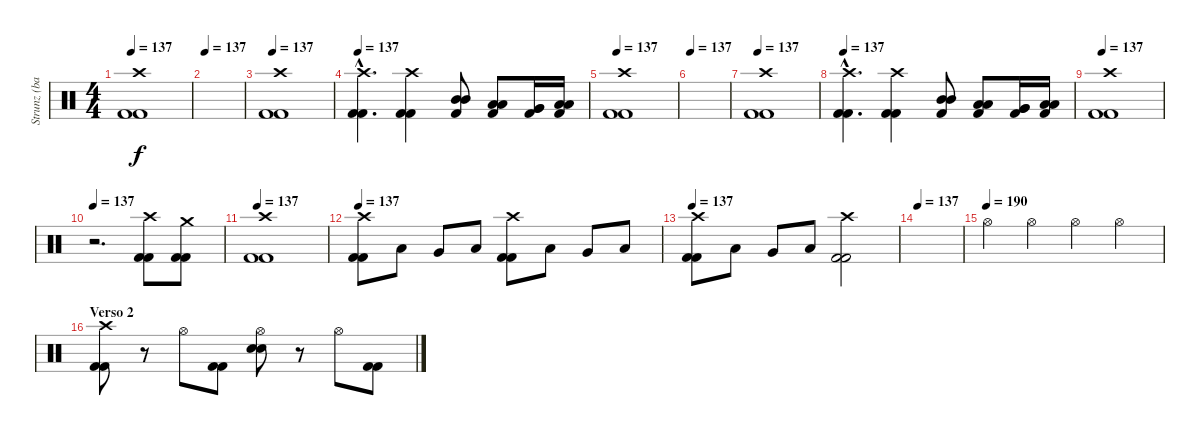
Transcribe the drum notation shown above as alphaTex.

\track ("Strunz (bateria)" "Strunz (ba") {instrument percussion}
\staff {score}
\articulation defaults
\ts (4 4)
\tempo 137
\clef neutral
\ks c
("Crash high (hit)" "Kick (hit) 2" "Kick (hit) 2").1{dy f} |
\tempo 137
|
\tempo 137
("Crash high (hit)" "Kick (hit) 2" "Kick (hit) 2").1 |
\tempo 137
("Crash high (hit)"{hac} "Kick (hit) 2"{hac} "Kick (hit) 2"{hac}).4{d} ("Crash high (hit)" "Kick (hit) 2" "Kick (hit) 2").4 ("Mid Tom (hit)" "Mid Tom (hit)" "Kick (hit) 2").8 ("Low Tom (hit)" "Low Tom (hit)" "Kick (hit) 2").8 ("Very Low Tom (hit)" "Very Low Tom (hit)" "Kick (hit) 2").16 ("Low Floor Tom (hit)" "Low Floor Tom (hit)" "Kick (hit) 2").16 |
\tempo 137
("Crash high (hit)" "Kick (hit) 2" "Kick (hit) 2").1 |
\tempo 137
|
\tempo 137
("Crash high (hit)" "Kick (hit) 2" "Kick (hit) 2").1 |
\tempo 137
("Crash high (hit)"{hac} "Kick (hit) 2"{hac} "Kick (hit) 2"{hac}).4{d} ("Crash high (hit)" "Kick (hit) 2" "Kick (hit) 2").4 ("Mid Tom (hit)" "Mid Tom (hit)" "Kick (hit) 2").8 ("Low Tom (hit)" "Low Tom (hit)" "Kick (hit) 2").8 ("Very Low Tom (hit)" "Very Low Tom (hit)" "Kick (hit) 2").16 ("Low Floor Tom (hit)" "Low Floor Tom (hit)" "Kick (hit) 2").16 |
\tempo 137
("Crash high (hit)" "Kick (hit) 2" "Kick (hit) 2").1 |
\tempo 137
r.2{d} ("Crash high (hit)" "Kick (hit) 2" "Kick (hit) 2").8 ("Crash medium (hit)" "Kick (hit) 2" "Kick (hit) 2").8 |
\tempo 137
("Crash high (hit)" "Kick (hit) 2" "Kick (hit) 2").1 |
\tempo 137
("Crash high (hit)" "Kick (hit) 2" "Kick (hit) 2").8 "Low Tom (hit)".8 "Very Low Tom (hit)".8 "Low Floor Tom (hit)".8 ("Crash high (hit)" "Kick (hit) 2" "Kick (hit) 2").8 "Low Tom (hit)".8 "Very Low Tom (hit)".8 "Low Floor Tom (hit)".8 |
\tempo 137
("Crash high (hit)" "Kick (hit) 2" "Kick (hit) 2").8 "Low Tom (hit)".8 "Very Low Tom (hit)".8 "Low Floor Tom (hit)".8 ("Crash high (hit)" "Kick (hit) 2" "Kick (hit) 2").2 |
\tempo 137
|
\tempo (190)
"Hi-Hat (open)".4 "Hi-Hat (open)".4 "Hi-Hat (open)".4 "Hi-Hat (open)".4 |
\section ("" "Verso 2")
("Crash high (hit)" "Kick (hit) 2" "Kick (hit) 2").8 r.8 "Hi-Hat (open)".8 ("Kick (hit) 2" "Kick (hit) 2").8 ("Hi-Hat (open)" "Snare (hit) 2" "Snare (hit) 2").8 r.8 "Hi-Hat (open)".8 ("Kick (hit) 2" "Kick (hit) 2").8
